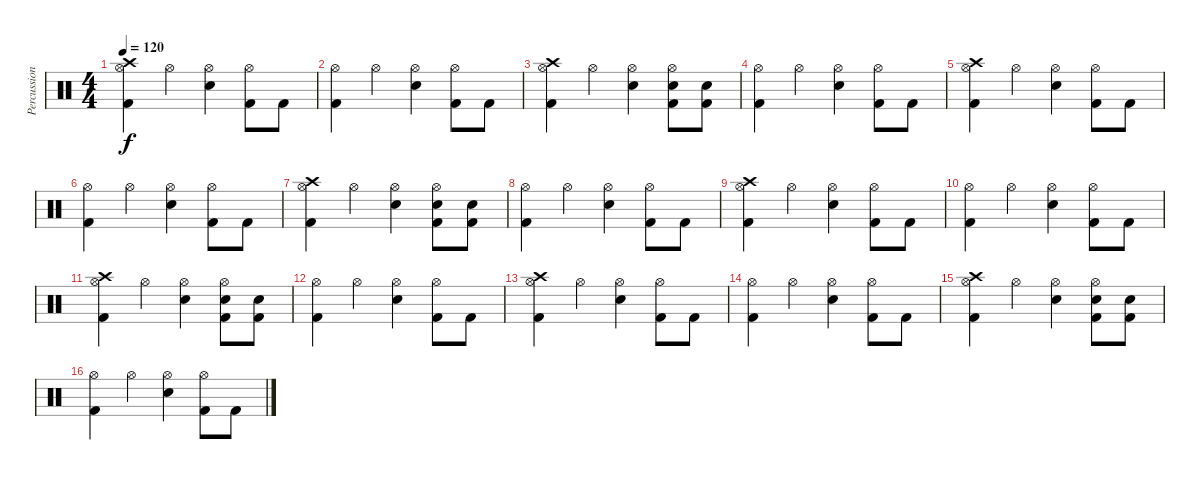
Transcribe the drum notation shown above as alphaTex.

\track ("Percussion" "Percussion") {instrument percussion}
\staff {score}
\articulation defaults
\ts (4 4)
\tempo 120
\clef neutral
\ks c
("Crash high (hit)" "Hi-Hat (open)" "Kick (hit) 2").4{dy f} "Hi-Hat (open)".4 ("Hi-Hat (open)" "Snare (hit) 2").4 ("Hi-Hat (open)" "Kick (hit) 2").8 "Kick (hit) 2".8 |
("Hi-Hat (open)" "Kick (hit) 2").4 "Hi-Hat (open)".4 ("Hi-Hat (open)" "Snare (hit) 2").4 ("Hi-Hat (open)" "Kick (hit) 2").8 "Kick (hit) 2".8 |
("Crash high (hit)" "Hi-Hat (open)" "Kick (hit) 2").4 "Hi-Hat (open)".4 ("Hi-Hat (open)" "Snare (hit) 2").4 ("Hi-Hat (open)" "Snare (hit) 2" "Kick (hit) 2").8 ("Snare (hit) 2" "Kick (hit) 2").8 |
("Hi-Hat (open)" "Kick (hit) 2").4 "Hi-Hat (open)".4 ("Hi-Hat (open)" "Snare (hit) 2").4 ("Hi-Hat (open)" "Kick (hit) 2").8 "Kick (hit) 2".8 |
("Crash high (hit)" "Hi-Hat (open)" "Kick (hit) 2").4 "Hi-Hat (open)".4 ("Hi-Hat (open)" "Snare (hit) 2").4 ("Hi-Hat (open)" "Kick (hit) 2").8 "Kick (hit) 2".8 |
("Hi-Hat (open)" "Kick (hit) 2").4 "Hi-Hat (open)".4 ("Hi-Hat (open)" "Snare (hit) 2").4 ("Hi-Hat (open)" "Kick (hit) 2").8 "Kick (hit) 2".8 |
("Crash high (hit)" "Hi-Hat (open)" "Kick (hit) 2").4 "Hi-Hat (open)".4 ("Hi-Hat (open)" "Snare (hit) 2").4 ("Hi-Hat (open)" "Snare (hit) 2" "Kick (hit) 2").8 ("Snare (hit) 2" "Kick (hit) 2").8 |
("Hi-Hat (open)" "Kick (hit) 2").4 "Hi-Hat (open)".4 ("Hi-Hat (open)" "Snare (hit) 2").4 ("Hi-Hat (open)" "Kick (hit) 2").8 "Kick (hit) 2".8 |
("Crash high (hit)" "Hi-Hat (open)" "Kick (hit) 2").4 "Hi-Hat (open)".4 ("Hi-Hat (open)" "Snare (hit) 2").4 ("Hi-Hat (open)" "Kick (hit) 2").8 "Kick (hit) 2".8 |
("Hi-Hat (open)" "Kick (hit) 2").4 "Hi-Hat (open)".4 ("Hi-Hat (open)" "Snare (hit) 2").4 ("Hi-Hat (open)" "Kick (hit) 2").8 "Kick (hit) 2".8 |
("Crash high (hit)" "Hi-Hat (open)" "Kick (hit) 2").4 "Hi-Hat (open)".4 ("Hi-Hat (open)" "Snare (hit) 2").4 ("Hi-Hat (open)" "Snare (hit) 2" "Kick (hit) 2").8 ("Snare (hit) 2" "Kick (hit) 2").8 |
("Hi-Hat (open)" "Kick (hit) 2").4 "Hi-Hat (open)".4 ("Hi-Hat (open)" "Snare (hit) 2").4 ("Hi-Hat (open)" "Kick (hit) 2").8 "Kick (hit) 2".8 |
("Crash high (hit)" "Hi-Hat (open)" "Kick (hit) 2").4 "Hi-Hat (open)".4 ("Hi-Hat (open)" "Snare (hit) 2").4 ("Hi-Hat (open)" "Kick (hit) 2").8 "Kick (hit) 2".8 |
("Hi-Hat (open)" "Kick (hit) 2").4 "Hi-Hat (open)".4 ("Hi-Hat (open)" "Snare (hit) 2").4 ("Hi-Hat (open)" "Kick (hit) 2").8 "Kick (hit) 2".8 |
("Crash high (hit)" "Hi-Hat (open)" "Kick (hit) 2").4 "Hi-Hat (open)".4 ("Hi-Hat (open)" "Snare (hit) 2").4 ("Hi-Hat (open)" "Snare (hit) 2" "Kick (hit) 2").8 ("Snare (hit) 2" "Kick (hit) 2").8 |
("Hi-Hat (open)" "Kick (hit) 2").4 "Hi-Hat (open)".4 ("Hi-Hat (open)" "Snare (hit) 2").4 ("Hi-Hat (open)" "Kick (hit) 2").8 "Kick (hit) 2".8
